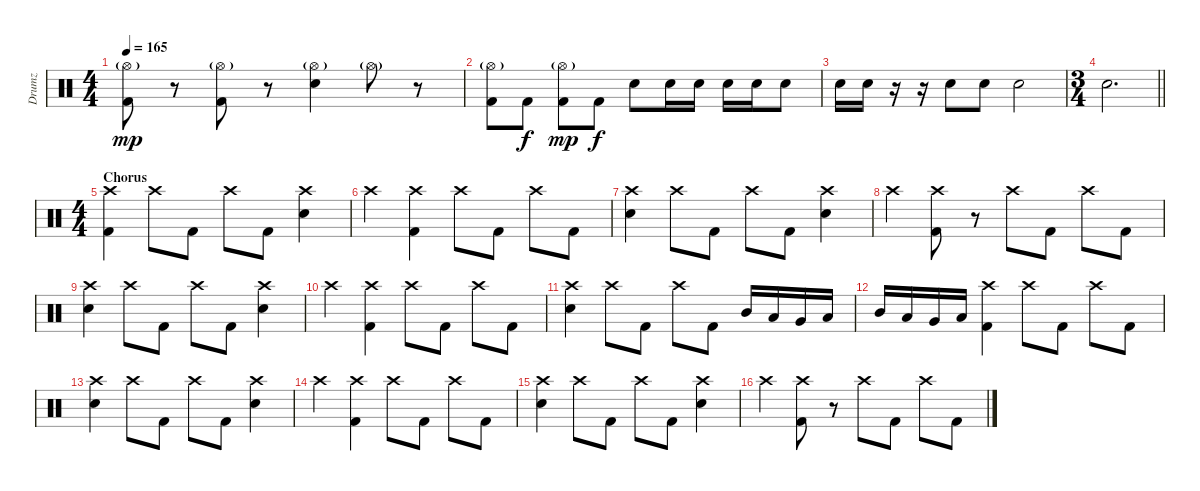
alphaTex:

\track ("Drumz" "Drumz") {instrument percussion}
\staff {score}
\articulation defaults
\ts (4 4)
\tempo 165
\clef neutral
\ks c
("Hi-Hat (open)"{g} "Kick (hit) 2").8{dy mp} r.8 ("Hi-Hat (open)"{g} "Kick (hit) 2").8 r.8 ("Hi-Hat (open)"{g} "Snare (hit) 2").4 "Hi-Hat (open)"{g}.8 r.8 |
("Hi-Hat (open)"{g} "Kick (hit) 2").8 "Kick (hit) 2".8{dy f} ("Hi-Hat (open)"{g} "Kick (hit) 2").8{dy mp} "Kick (hit) 2".8{dy f} "Electric Snare (hit)".8 "Electric Snare (hit)".16 "Electric Snare (hit)".16 "Electric Snare (hit)".16 "Electric Snare (hit)".16 "Electric Snare (hit)".8 |
"Electric Snare (hit)".16 "Electric Snare (hit)".16 r.16 r.16 "Electric Snare (hit)".8 "Electric Snare (hit)".8 "Electric Snare (hit)".2 |
\ts (3 4)
\barLineRight lightlight "Electric Snare (hit)".2{d}
|
\ts (4 4)
\section ("" "Chorus")
("Kick (hit) 2" "Crash high (hit)").4 "Crash high (hit)".8 "Kick (hit) 2".8 "Crash high (hit)".8 "Kick (hit) 2".8 ("Snare (hit) 2" "Crash high (hit)").4 |
"Crash high (hit)".4 ("Kick (hit) 2" "Crash high (hit)").4 "Crash high (hit)".8 "Kick (hit) 2".8 "Crash high (hit)".8 "Kick (hit) 2".8 |
("Snare (hit) 2" "Crash high (hit)").4 "Crash high (hit)".8 "Kick (hit) 2".8 "Crash high (hit)".8 "Kick (hit) 2".8 ("Snare (hit) 2" "Crash high (hit)").4 |
"Crash high (hit)".4 ("Crash high (hit)" "Kick (hit) 2").8 r.8 "Crash high (hit)".8 "Kick (hit) 2".8 "Crash high (hit)".8 "Kick (hit) 2".8 |
("Crash high (hit)" "Snare (hit) 2").4 "Crash high (hit)".8 "Kick (hit) 2".8 "Crash high (hit)".8 "Kick (hit) 2".8 ("Snare (hit) 2" "Crash high (hit)").4 |
"Crash high (hit)".4 ("Crash high (hit)" "Kick (hit) 2").4 "Crash high (hit)".8 "Kick (hit) 2".8 "Crash high (hit)".8 "Kick (hit) 2".8 |
("Crash high (hit)" "Snare (hit) 2").4 "Crash high (hit)".8 "Kick (hit) 2".8 "Crash high (hit)".8 "Kick (hit) 2".8 "Mid Tom (hit)".16 "Low Tom (hit)".16 "Very Low Tom (hit)".16 "Low Floor Tom (hit)".16 |
"Mid Tom (hit)".16 "Low Tom (hit)".16 "Very Low Tom (hit)".16 "Low Floor Tom (hit)".16 ("Crash high (hit)" "Kick (hit) 2").4 "Crash high (hit)".8 "Kick (hit) 2".8 "Crash high (hit)".8 "Kick (hit) 2".8 |
("Crash high (hit)" "Snare (hit) 2").4 "Crash high (hit)".8 "Kick (hit) 2".8 "Crash high (hit)".8 "Kick (hit) 2".8 ("Snare (hit) 2" "Crash high (hit)").4 |
"Crash high (hit)".4 ("Crash high (hit)" "Kick (hit) 2").4 "Crash high (hit)".8 "Kick (hit) 2".8 "Crash high (hit)".8 "Kick (hit) 2".8 |
("Crash high (hit)" "Snare (hit) 2").4 "Crash high (hit)".8 "Kick (hit) 2".8 "Crash high (hit)".8 "Kick (hit) 2".8 ("Snare (hit) 2" "Crash high (hit)").4 |
"Crash high (hit)".4 ("Crash high (hit)" "Kick (hit) 2").8 r.8 "Crash high (hit)".8 "Kick (hit) 2".8 "Crash high (hit)".8 "Kick (hit) 2".8
